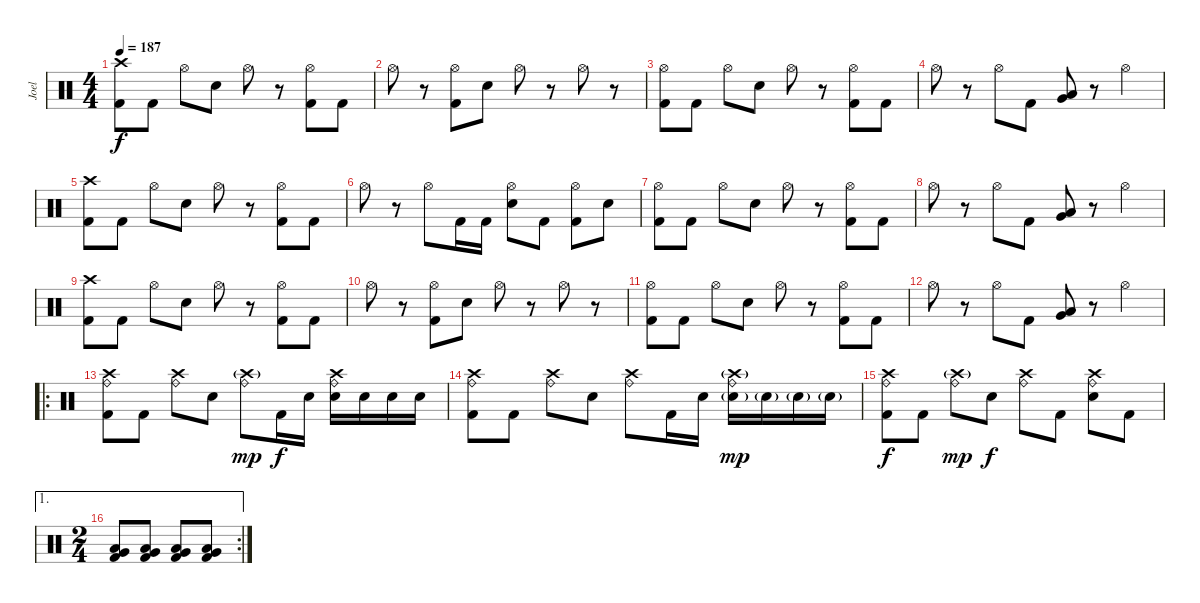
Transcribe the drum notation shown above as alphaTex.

\track ("Joel" "Joel") {instrument percussion}
\staff {score}
\articulation defaults
\ts (4 4)
\tempo 187
\clef neutral
\ks c
("Crash high (hit)" "Kick (hit) 2").8{dy f} "Kick (hit) 2".8 "Hi-Hat (open)".8 "Snare (hit) 2".8 "Hi-Hat (open)".8 r.8 ("Hi-Hat (open)" "Kick (hit) 2").8 "Kick (hit) 2".8 |
"Hi-Hat (open)".8 r.8 ("Hi-Hat (open)" "Kick (hit) 2").8 "Snare (hit) 2".8 "Hi-Hat (open)".8 r.8 "Hi-Hat (open)".8 r.8 |
("Hi-Hat (open)" "Kick (hit) 2").8 "Kick (hit) 2".8 "Hi-Hat (open)".8 "Snare (hit) 2".8 "Hi-Hat (open)".8 r.8 ("Hi-Hat (open)" "Kick (hit) 2").8 "Kick (hit) 2".8 |
"Hi-Hat (open)".8 r.8 "Hi-Hat (open)".8 "Kick (hit) 2".8 ("Low Tom (hit)" "Very Low Tom (hit)").8 r.8 "Hi-Hat (open)".4 |
("Crash high (hit)" "Kick (hit) 2").8 "Kick (hit) 2".8 "Hi-Hat (open)".8 "Snare (hit) 2".8 "Hi-Hat (open)".8 r.8 ("Hi-Hat (open)" "Kick (hit) 2").8 "Kick (hit) 2".8 |
"Hi-Hat (open)".8 r.8 "Hi-Hat (open)".8 "Kick (hit) 2".16 "Kick (hit) 2".16 ("Hi-Hat (open)" "Snare (hit) 2").8 "Kick (hit) 2".8 ("Hi-Hat (open)" "Kick (hit) 2").8 "Snare (hit) 2".8 |
("Hi-Hat (open)" "Kick (hit) 2").8 "Kick (hit) 2".8 "Hi-Hat (open)".8 "Snare (hit) 2".8 "Hi-Hat (open)".8 r.8 ("Hi-Hat (open)" "Kick (hit) 2").8 "Kick (hit) 2".8 |
"Hi-Hat (open)".8 r.8 "Hi-Hat (open)".8 "Kick (hit) 2".8 ("Very Low Tom (hit)" "Low Floor Tom (hit)").8 r.8 "Hi-Hat (open)".4 |
("Crash high (hit)" "Kick (hit) 2").8 "Kick (hit) 2".8 "Hi-Hat (open)".8 "Snare (hit) 2".8 "Hi-Hat (open)".8 r.8 ("Hi-Hat (open)" "Kick (hit) 2").8 "Kick (hit) 2".8 |
"Hi-Hat (open)".8 r.8 ("Hi-Hat (open)" "Kick (hit) 2").8 "Snare (hit) 2".8 "Hi-Hat (open)".8 r.8 "Hi-Hat (open)".8 r.8 |
("Hi-Hat (open)" "Kick (hit) 2").8 "Kick (hit) 2".8 "Hi-Hat (open)".8 "Snare (hit) 2".8 "Hi-Hat (open)".8 r.8 ("Hi-Hat (open)" "Kick (hit) 2").8 "Kick (hit) 2".8 |
"Hi-Hat (open)".8 r.8 "Hi-Hat (open)".8 "Kick (hit) 2".8 ("Very Low Tom (hit)" "Low Floor Tom (hit)").8 r.8 "Hi-Hat (open)".4 |
\ro
("Crash high (hit)" "Ride (bell)" "Kick (hit) 2").8 "Kick (hit) 2".8 ("Crash high (hit)" "Ride (bell)").8 "Snare (hit) 2".8 ("Crash high (hit)"{g} "Ride (bell)").8{dy mp} "Kick (hit) 2".16{dy f} "Snare (hit) 2".16 ("Crash high (hit)" "Ride (bell)" "Snare (hit) 2").16 "Snare (hit) 2".16 "Snare (hit) 2".16 "Snare (hit) 2".16 |
("Crash high (hit)" "Ride (bell)" "Kick (hit) 2").8 "Kick (hit) 2".8 ("Crash high (hit)" "Ride (bell)").8 "Snare (hit) 2".8 ("Crash high (hit)" "Ride (bell)").8 "Kick (hit) 2".16 "Snare (hit) 2".16 ("Crash high (hit)"{g} "Ride (bell)" "Snare (hit) 2"{g}).16{dy mp} "Snare (hit) 2"{g}.16 "Snare (hit) 2"{g}.16 "Snare (hit) 2"{g}.16 |
("Crash high (hit)" "Ride (bell)" "Kick (hit) 2").8{dy f} "Kick (hit) 2".8 ("Crash high (hit)"{g} "Ride (bell)").8{dy mp} "Snare (hit) 2".8{dy f} ("Crash high (hit)" "Ride (bell)").8 "Kick (hit) 2".8 ("Crash high (hit)" "Ride (bell)" "Snare (hit) 2").8 "Kick (hit) 2".8 |
\ae 1
\rc 2
\ts (2 4)
("Low Tom (hit)" "Very Low Tom (hit)" "Kick (hit) 2").8 ("Low Tom (hit)" "Very Low Tom (hit)" "Kick (hit) 2").8 ("Low Tom (hit)" "Very Low Tom (hit)" "Kick (hit) 2").8 ("Low Tom (hit)" "Very Low Tom (hit)" "Kick (hit) 2").8
